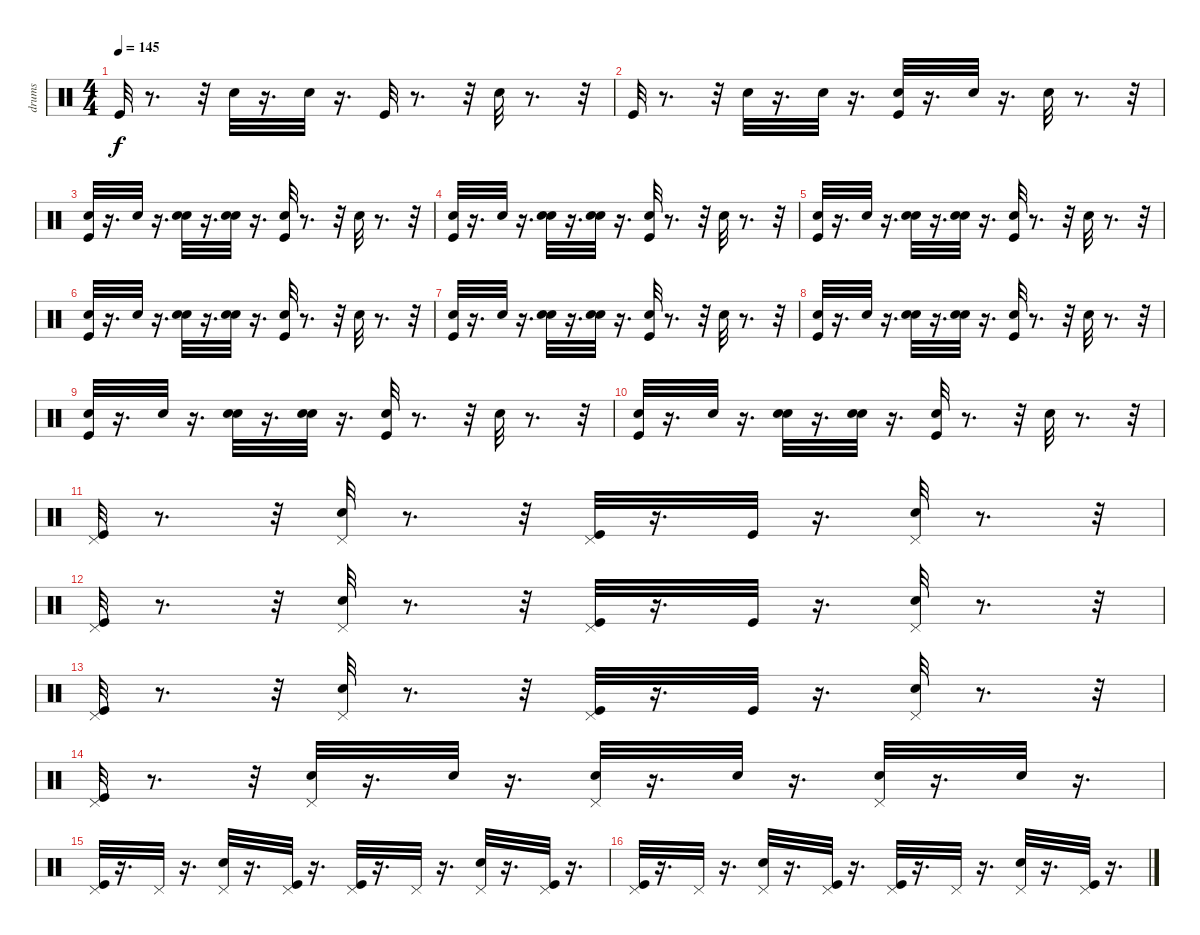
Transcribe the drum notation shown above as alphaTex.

\track ("drums" "drums") {instrument percussion}
\staff {score}
\articulation defaults
\ts (4 4)
\tempo 145
\clef neutral
\ks c "Kick (hit)".32{dy f}
r.8{d} r.32 "Electric Snare (hit)".32 r.16{d} "Electric Snare (hit)".32 r.16{d} "Kick (hit)".32 r.8{d} r.32 "Electric Snare (hit)".32 r.8{d} r.32 |
"Kick (hit)".32 r.8{d} r.32 "Electric Snare (hit)".32 r.16{d} "Electric Snare (hit)".32 r.16{d} ("Hand Clap (hit)" "Kick (hit)").32 r.16{d} "Hand Clap (hit)".32 r.16{d} "Electric Snare (hit)".32 r.8{d} r.32 |
("Hand Clap (hit)" "Kick (hit)").32 r.16{d} "Hand Clap (hit)".32 r.16{d} ("Hand Clap (hit)" "Electric Snare (hit)").32 r.16{d} ("Hand Clap (hit)" "Electric Snare (hit)").32 r.16{d} ("Hand Clap (hit)" "Kick (hit)").32 r.8{d} r.32 "Electric Snare (hit)".32 r.8{d} r.32 |
("Hand Clap (hit)" "Kick (hit)").32 r.16{d} "Hand Clap (hit)".32 r.16{d} ("Hand Clap (hit)" "Electric Snare (hit)").32 r.16{d} ("Hand Clap (hit)" "Electric Snare (hit)").32 r.16{d} ("Kick (hit)" "Hand Clap (hit)").32 r.8{d} r.32 "Electric Snare (hit)".32 r.8{d} r.32 |
("Hand Clap (hit)" "Kick (hit)").32 r.16{d} "Hand Clap (hit)".32 r.16{d} ("Hand Clap (hit)" "Electric Snare (hit)").32 r.16{d} ("Hand Clap (hit)" "Electric Snare (hit)").32 r.16{d} ("Hand Clap (hit)" "Kick (hit)").32 r.8{d} r.32 "Electric Snare (hit)".32 r.8{d} r.32 |
("Hand Clap (hit)" "Kick (hit)").32 r.16{d} "Hand Clap (hit)".32 r.16{d} ("Hand Clap (hit)" "Electric Snare (hit)").32 r.16{d} ("Hand Clap (hit)" "Electric Snare (hit)").32 r.16{d} ("Hand Clap (hit)" "Kick (hit)").32 r.8{d} r.32 "Electric Snare (hit)".32 r.8{d} r.32 |
("Hand Clap (hit)" "Kick (hit)").32 r.16{d} "Hand Clap (hit)".32 r.16{d} ("Hand Clap (hit)" "Electric Snare (hit)").32 r.16{d} ("Hand Clap (hit)" "Electric Snare (hit)").32 r.16{d} ("Hand Clap (hit)" "Kick (hit)").32 r.8{d} r.32 "Electric Snare (hit)".32 r.8{d} r.32 |
("Hand Clap (hit)" "Kick (hit)").32 r.16{d} "Hand Clap (hit)".32 r.16{d} ("Hand Clap (hit)" "Electric Snare (hit)").32 r.16{d} ("Hand Clap (hit)" "Electric Snare (hit)").32 r.16{d} ("Kick (hit)" "Hand Clap (hit)").32 r.8{d} r.32 "Electric Snare (hit)".32 r.8{d} r.32 |
("Hand Clap (hit)" "Kick (hit)").32 r.16{d} "Hand Clap (hit)".32 r.16{d} ("Hand Clap (hit)" "Electric Snare (hit)").32 r.16{d} ("Hand Clap (hit)" "Electric Snare (hit)").32 r.16{d} ("Hand Clap (hit)" "Kick (hit)").32 r.8{d} r.32 "Electric Snare (hit)".32 r.8{d} r.32 |
("Hand Clap (hit)" "Kick (hit)").32 r.16{d} "Hand Clap (hit)".32 r.16{d} ("Hand Clap (hit)" "Electric Snare (hit)").32 r.16{d} ("Hand Clap (hit)" "Electric Snare (hit)").32 r.16{d} ("Hand Clap (hit)" "Kick (hit)").32 r.8{d} r.32 "Electric Snare (hit)".32 r.8{d} r.32 |
("Pedal Hi-Hat (hit)" "Kick (hit)").32 r.8{d} r.32 ("Pedal Hi-Hat (hit)" "Electric Snare (hit)").32 r.8{d} r.32 ("Pedal Hi-Hat (hit)" "Kick (hit)").32 r.16{d} "Kick (hit)".32 r.16{d} ("Pedal Hi-Hat (hit)" "Electric Snare (hit)").32 r.8{d} r.32 |
("Pedal Hi-Hat (hit)" "Kick (hit)").32 r.8{d} r.32 ("Pedal Hi-Hat (hit)" "Electric Snare (hit)").32 r.8{d} r.32 ("Pedal Hi-Hat (hit)" "Kick (hit)").32 r.16{d} "Kick (hit)".32 r.16{d} ("Pedal Hi-Hat (hit)" "Electric Snare (hit)").32 r.8{d} r.32 |
("Pedal Hi-Hat (hit)" "Kick (hit)").32 r.8{d} r.32 ("Pedal Hi-Hat (hit)" "Electric Snare (hit)").32 r.8{d} r.32 ("Pedal Hi-Hat (hit)" "Kick (hit)").32 r.16{d} "Kick (hit)".32 r.16{d} ("Pedal Hi-Hat (hit)" "Electric Snare (hit)").32 r.8{d} r.32 |
("Pedal Hi-Hat (hit)" "Kick (hit)").32 r.8{d} r.32 ("Pedal Hi-Hat (hit)" "Electric Snare (hit)").32 r.16{d} "Electric Snare (hit)".32 r.16{d} ("Electric Snare (hit)" "Pedal Hi-Hat (hit)").32 r.16{d} "Electric Snare (hit)".32 r.16{d} ("Pedal Hi-Hat (hit)" "Electric Snare (hit)").32 r.16{d} "Electric Snare (hit)".32 r.16{d} |
("Kick (hit)" "Pedal Hi-Hat (hit)").32 r.16{d} "Pedal Hi-Hat (hit)".32 r.16{d} ("Electric Snare (hit)" "Pedal Hi-Hat (hit)").32 r.16{d} ("Pedal Hi-Hat (hit)" "Kick (hit)").32 r.16{d} ("Pedal Hi-Hat (hit)" "Kick (hit)").32 r.16{d} "Pedal Hi-Hat (hit)".32 r.16{d} ("Pedal Hi-Hat (hit)" "Electric Snare (hit)").32 r.16{d} ("Pedal Hi-Hat (hit)" "Kick (hit)").32 r.16{d} |
("Pedal Hi-Hat (hit)" "Kick (hit)").32 r.16{d} "Pedal Hi-Hat (hit)".32 r.16{d} ("Pedal Hi-Hat (hit)" "Electric Snare (hit)").32 r.16{d} ("Pedal Hi-Hat (hit)" "Kick (hit)").32 r.16{d} ("Pedal Hi-Hat (hit)" "Kick (hit)").32 r.16{d} "Pedal Hi-Hat (hit)".32 r.16{d} ("Pedal Hi-Hat (hit)" "Electric Snare (hit)").32 r.16{d} ("Pedal Hi-Hat (hit)" "Kick (hit)").32 r.16{d}
